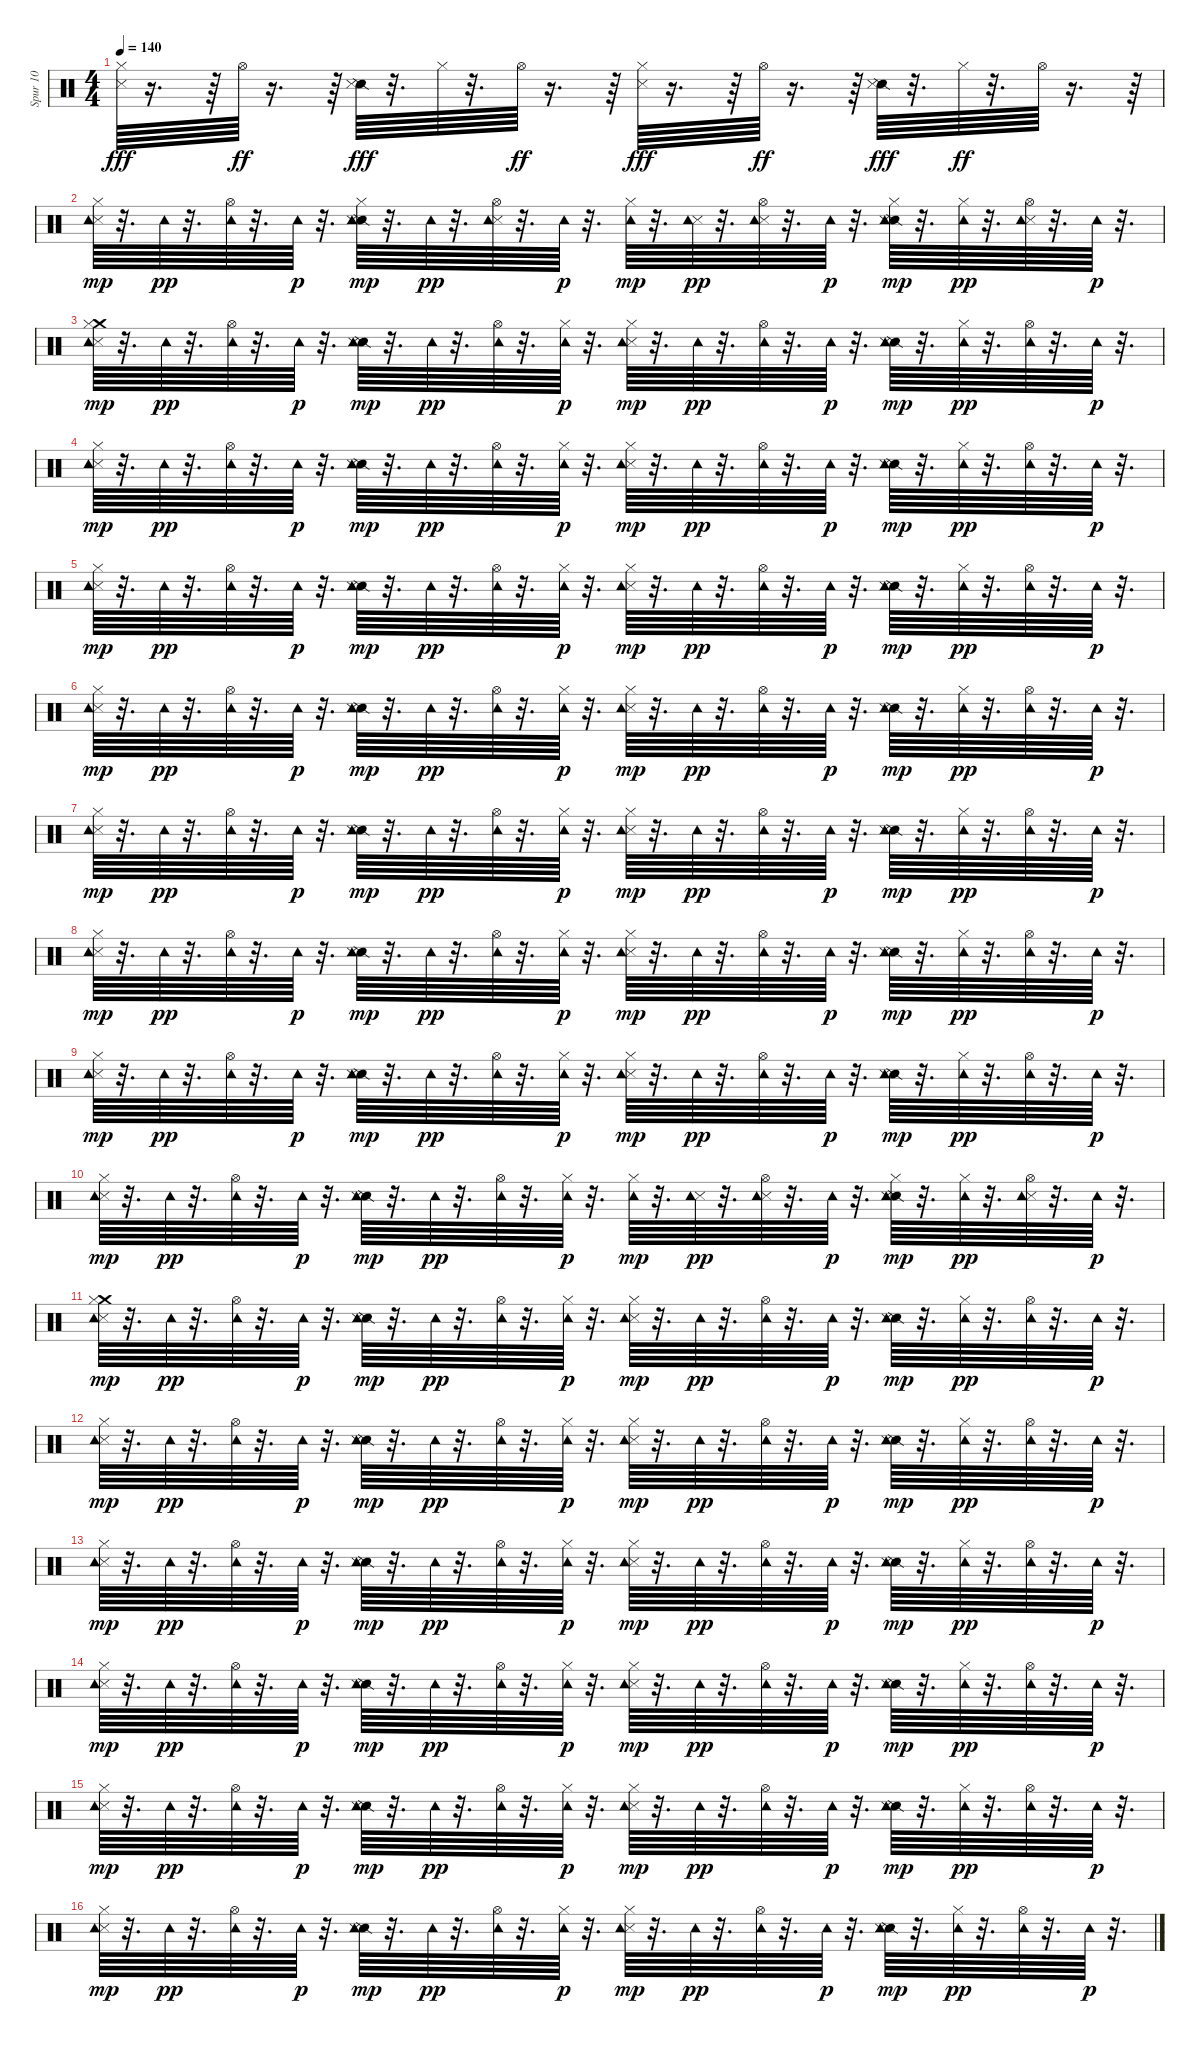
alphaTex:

\track ("Spur 10" "Spur 10") {instrument percussion}
\staff {score}
\articulation defaults
\ts (4 4)
\tempo 140
\clef neutral
\ks c
("Metronome (hit)" "Hi-Hat (closed)").64{dy fff} r.16{d} r.64 "Hi-Hat (open)".64{dy ff} r.16{d} r.64 ("Snare (side stick) 2" "Metronome (hit)").64{dy fff} r.32{d} "Hi-Hat (closed)".64 r.32{d} "Hi-Hat (open)".64{dy ff} r.16{d} r.64 ("Metronome (hit)" "Hi-Hat (closed)").64{dy fff} r.16{d} r.64 "Hi-Hat (open)".64{dy ff} r.16{d} r.64 ("Snare (side stick) 2" "Metronome (hit)").64{dy fff} r.32{d} "Hi-Hat (closed)".64{dy ff} r.32{d} "Hi-Hat (open)".64 r.16{d} r.64 |
("Metronome (hit)" "Hi-Hat (closed)" "Tambourine (hit)").64{dy mp} r.32{d} "Tambourine (hit)".64{dy pp} r.32{d} ("Hi-Hat (open)" "Tambourine (hit)").64 r.32{d} "Tambourine (hit)".64{dy p} r.32{d} ("Snare (side stick) 2" "Metronome (hit)" "Hi-Hat (closed)" "Tambourine (hit)").64{dy mp} r.32{d} "Tambourine (hit)".64{dy pp} r.32{d} ("Metronome (hit)" "Hi-Hat (open)" "Tambourine (hit)").64 r.32{d} "Tambourine (hit)".64{dy p} r.32{d} ("Hi-Hat (closed)" "Tambourine (hit)").64{dy mp} r.32{d} ("Metronome (hit)" "Tambourine (hit)").64{dy pp} r.32{d} ("Metronome (hit)" "Hi-Hat (open)" "Tambourine (hit)").64 r.32{d} "Tambourine (hit)".64{dy p} r.32{d} ("Snare (side stick) 2" "Metronome (hit)" "Hi-Hat (closed)" "Tambourine (hit)").64{dy mp} r.32{d} ("Hi-Hat (closed)" "Tambourine (hit)").64{dy pp} r.32{d} ("Metronome (hit)" "Hi-Hat (open)" "Tambourine (hit)").64 r.32{d} "Tambourine (hit)".64{dy p} r.32{d} |
("Crash medium (hit)" "Metronome (hit)" "Hi-Hat (closed)" "Tambourine (hit)").64{dy mp} r.32{d} "Tambourine (hit)".64{dy pp} r.32{d} ("Hi-Hat (open)" "Tambourine (hit)").64 r.32{d} "Tambourine (hit)".64{dy p} r.32{d} ("Snare (side stick) 2" "Metronome (hit)" "Tambourine (hit)").64{dy mp} r.32{d} "Tambourine (hit)".64{dy pp} r.32{d} ("Hi-Hat (open)" "Tambourine (hit)").64 r.32{d} ("Hi-Hat (closed)" "Tambourine (hit)").64{dy p} r.32{d} ("Metronome (hit)" "Hi-Hat (closed)" "Tambourine (hit)").64{dy mp} r.32{d} "Tambourine (hit)".64{dy pp} r.32{d} ("Hi-Hat (open)" "Tambourine (hit)").64 r.32{d} "Tambourine (hit)".64{dy p} r.32{d} ("Snare (side stick) 2" "Metronome (hit)" "Tambourine (hit)").64{dy mp} r.32{d} ("Hi-Hat (closed)" "Tambourine (hit)").64{dy pp} r.32{d} ("Hi-Hat (open)" "Tambourine (hit)").64 r.32{d} "Tambourine (hit)".64{dy p} r.32{d} |
("Metronome (hit)" "Hi-Hat (closed)" "Tambourine (hit)").64{dy mp} r.32{d} "Tambourine (hit)".64{dy pp} r.32{d} ("Hi-Hat (open)" "Tambourine (hit)").64 r.32{d} "Tambourine (hit)".64{dy p} r.32{d} ("Snare (side stick) 2" "Metronome (hit)" "Tambourine (hit)").64{dy mp} r.32{d} "Tambourine (hit)".64{dy pp} r.32{d} ("Hi-Hat (open)" "Tambourine (hit)").64 r.32{d} ("Hi-Hat (closed)" "Tambourine (hit)").64{dy p} r.32{d} ("Metronome (hit)" "Hi-Hat (closed)" "Tambourine (hit)").64{dy mp} r.32{d} "Tambourine (hit)".64{dy pp} r.32{d} ("Hi-Hat (open)" "Tambourine (hit)").64 r.32{d} "Tambourine (hit)".64{dy p} r.32{d} ("Snare (side stick) 2" "Metronome (hit)" "Tambourine (hit)").64{dy mp} r.32{d} ("Hi-Hat (closed)" "Tambourine (hit)").64{dy pp} r.32{d} ("Hi-Hat (open)" "Tambourine (hit)").64 r.32{d} "Tambourine (hit)".64{dy p} r.32{d} |
("Metronome (hit)" "Hi-Hat (closed)" "Tambourine (hit)").64{dy mp} r.32{d} "Tambourine (hit)".64{dy pp} r.32{d} ("Hi-Hat (open)" "Tambourine (hit)").64 r.32{d} "Tambourine (hit)".64{dy p} r.32{d} ("Snare (side stick) 2" "Metronome (hit)" "Tambourine (hit)").64{dy mp} r.32{d} "Tambourine (hit)".64{dy pp} r.32{d} ("Hi-Hat (open)" "Tambourine (hit)").64 r.32{d} ("Hi-Hat (closed)" "Tambourine (hit)").64{dy p} r.32{d} ("Metronome (hit)" "Hi-Hat (closed)" "Tambourine (hit)").64{dy mp} r.32{d} "Tambourine (hit)".64{dy pp} r.32{d} ("Hi-Hat (open)" "Tambourine (hit)").64 r.32{d} "Tambourine (hit)".64{dy p} r.32{d} ("Snare (side stick) 2" "Metronome (hit)" "Tambourine (hit)").64{dy mp} r.32{d} ("Hi-Hat (closed)" "Tambourine (hit)").64{dy pp} r.32{d} ("Hi-Hat (open)" "Tambourine (hit)").64 r.32{d} "Tambourine (hit)".64{dy p} r.32{d} |
("Metronome (hit)" "Hi-Hat (closed)" "Tambourine (hit)").64{dy mp} r.32{d} "Tambourine (hit)".64{dy pp} r.32{d} ("Hi-Hat (open)" "Tambourine (hit)").64 r.32{d} "Tambourine (hit)".64{dy p} r.32{d} ("Snare (side stick) 2" "Metronome (hit)" "Tambourine (hit)").64{dy mp} r.32{d} "Tambourine (hit)".64{dy pp} r.32{d} ("Hi-Hat (open)" "Tambourine (hit)").64 r.32{d} ("Hi-Hat (closed)" "Tambourine (hit)").64{dy p} r.32{d} ("Metronome (hit)" "Hi-Hat (closed)" "Tambourine (hit)").64{dy mp} r.32{d} "Tambourine (hit)".64{dy pp} r.32{d} ("Hi-Hat (open)" "Tambourine (hit)").64 r.32{d} "Tambourine (hit)".64{dy p} r.32{d} ("Snare (side stick) 2" "Metronome (hit)" "Tambourine (hit)").64{dy mp} r.32{d} ("Hi-Hat (closed)" "Tambourine (hit)").64{dy pp} r.32{d} ("Hi-Hat (open)" "Tambourine (hit)").64 r.32{d} "Tambourine (hit)".64{dy p} r.32{d} |
("Metronome (hit)" "Hi-Hat (closed)" "Tambourine (hit)").64{dy mp} r.32{d} "Tambourine (hit)".64{dy pp} r.32{d} ("Hi-Hat (open)" "Tambourine (hit)").64 r.32{d} "Tambourine (hit)".64{dy p} r.32{d} ("Snare (side stick) 2" "Metronome (hit)" "Tambourine (hit)").64{dy mp} r.32{d} "Tambourine (hit)".64{dy pp} r.32{d} ("Hi-Hat (open)" "Tambourine (hit)").64 r.32{d} ("Hi-Hat (closed)" "Tambourine (hit)").64{dy p} r.32{d} ("Metronome (hit)" "Hi-Hat (closed)" "Tambourine (hit)").64{dy mp} r.32{d} "Tambourine (hit)".64{dy pp} r.32{d} ("Hi-Hat (open)" "Tambourine (hit)").64 r.32{d} "Tambourine (hit)".64{dy p} r.32{d} ("Snare (side stick) 2" "Metronome (hit)" "Tambourine (hit)").64{dy mp} r.32{d} ("Hi-Hat (closed)" "Tambourine (hit)").64{dy pp} r.32{d} ("Hi-Hat (open)" "Tambourine (hit)").64 r.32{d} "Tambourine (hit)".64{dy p} r.32{d} |
("Metronome (hit)" "Hi-Hat (closed)" "Tambourine (hit)").64{dy mp} r.32{d} "Tambourine (hit)".64{dy pp} r.32{d} ("Hi-Hat (open)" "Tambourine (hit)").64 r.32{d} "Tambourine (hit)".64{dy p} r.32{d} ("Snare (side stick) 2" "Metronome (hit)" "Tambourine (hit)").64{dy mp} r.32{d} "Tambourine (hit)".64{dy pp} r.32{d} ("Hi-Hat (open)" "Tambourine (hit)").64 r.32{d} ("Hi-Hat (closed)" "Tambourine (hit)").64{dy p} r.32{d} ("Metronome (hit)" "Hi-Hat (closed)" "Tambourine (hit)").64{dy mp} r.32{d} "Tambourine (hit)".64{dy pp} r.32{d} ("Hi-Hat (open)" "Tambourine (hit)").64 r.32{d} "Tambourine (hit)".64{dy p} r.32{d} ("Snare (side stick) 2" "Metronome (hit)" "Tambourine (hit)").64{dy mp} r.32{d} ("Hi-Hat (closed)" "Tambourine (hit)").64{dy pp} r.32{d} ("Hi-Hat (open)" "Tambourine (hit)").64 r.32{d} "Tambourine (hit)".64{dy p} r.32{d} |
("Metronome (hit)" "Hi-Hat (closed)" "Tambourine (hit)").64{dy mp} r.32{d} "Tambourine (hit)".64{dy pp} r.32{d} ("Hi-Hat (open)" "Tambourine (hit)").64 r.32{d} "Tambourine (hit)".64{dy p} r.32{d} ("Snare (side stick) 2" "Metronome (hit)" "Tambourine (hit)").64{dy mp} r.32{d} "Tambourine (hit)".64{dy pp} r.32{d} ("Hi-Hat (open)" "Tambourine (hit)").64 r.32{d} ("Hi-Hat (closed)" "Tambourine (hit)").64{dy p} r.32{d} ("Metronome (hit)" "Hi-Hat (closed)" "Tambourine (hit)").64{dy mp} r.32{d} "Tambourine (hit)".64{dy pp} r.32{d} ("Hi-Hat (open)" "Tambourine (hit)").64 r.32{d} "Tambourine (hit)".64{dy p} r.32{d} ("Snare (side stick) 2" "Metronome (hit)" "Tambourine (hit)").64{dy mp} r.32{d} ("Hi-Hat (closed)" "Tambourine (hit)").64{dy pp} r.32{d} ("Hi-Hat (open)" "Tambourine (hit)").64 r.32{d} "Tambourine (hit)".64{dy p} r.32{d} |
("Metronome (hit)" "Hi-Hat (closed)" "Tambourine (hit)").64{dy mp} r.32{d} "Tambourine (hit)".64{dy pp} r.32{d} ("Hi-Hat (open)" "Tambourine (hit)").64 r.32{d} "Tambourine (hit)".64{dy p} r.32{d} ("Snare (side stick) 2" "Metronome (hit)" "Tambourine (hit)").64{dy mp} r.32{d} "Tambourine (hit)".64{dy pp} r.32{d} ("Hi-Hat (open)" "Tambourine (hit)").64 r.32{d} ("Hi-Hat (closed)" "Tambourine (hit)").64{dy p} r.32{d} ("Hi-Hat (closed)" "Tambourine (hit)").64{dy mp} r.32{d} ("Metronome (hit)" "Tambourine (hit)").64{dy pp} r.32{d} ("Metronome (hit)" "Hi-Hat (open)" "Tambourine (hit)").64 r.32{d} "Tambourine (hit)".64{dy p} r.32{d} ("Snare (side stick) 2" "Metronome (hit)" "Hi-Hat (closed)" "Tambourine (hit)").64{dy mp} r.32{d} ("Hi-Hat (closed)" "Tambourine (hit)").64{dy pp} r.32{d} ("Metronome (hit)" "Hi-Hat (open)" "Tambourine (hit)").64 r.32{d} "Tambourine (hit)".64{dy p} r.32{d} |
("Crash medium (hit)" "Metronome (hit)" "Hi-Hat (closed)" "Tambourine (hit)").64{dy mp} r.32{d} "Tambourine (hit)".64{dy pp} r.32{d} ("Hi-Hat (open)" "Tambourine (hit)").64 r.32{d} "Tambourine (hit)".64{dy p} r.32{d} ("Snare (side stick) 2" "Metronome (hit)" "Tambourine (hit)").64{dy mp} r.32{d} "Tambourine (hit)".64{dy pp} r.32{d} ("Hi-Hat (open)" "Tambourine (hit)").64 r.32{d} ("Hi-Hat (closed)" "Tambourine (hit)").64{dy p} r.32{d} ("Metronome (hit)" "Hi-Hat (closed)" "Tambourine (hit)").64{dy mp} r.32{d} "Tambourine (hit)".64{dy pp} r.32{d} ("Hi-Hat (open)" "Tambourine (hit)").64 r.32{d} "Tambourine (hit)".64{dy p} r.32{d} ("Snare (side stick) 2" "Metronome (hit)" "Tambourine (hit)").64{dy mp} r.32{d} ("Hi-Hat (closed)" "Tambourine (hit)").64{dy pp} r.32{d} ("Hi-Hat (open)" "Tambourine (hit)").64 r.32{d} "Tambourine (hit)".64{dy p} r.32{d} |
("Metronome (hit)" "Hi-Hat (closed)" "Tambourine (hit)").64{dy mp} r.32{d} "Tambourine (hit)".64{dy pp} r.32{d} ("Hi-Hat (open)" "Tambourine (hit)").64 r.32{d} "Tambourine (hit)".64{dy p} r.32{d} ("Snare (side stick) 2" "Metronome (hit)" "Tambourine (hit)").64{dy mp} r.32{d} "Tambourine (hit)".64{dy pp} r.32{d} ("Hi-Hat (open)" "Tambourine (hit)").64 r.32{d} ("Hi-Hat (closed)" "Tambourine (hit)").64{dy p} r.32{d} ("Metronome (hit)" "Hi-Hat (closed)" "Tambourine (hit)").64{dy mp} r.32{d} "Tambourine (hit)".64{dy pp} r.32{d} ("Hi-Hat (open)" "Tambourine (hit)").64 r.32{d} "Tambourine (hit)".64{dy p} r.32{d} ("Snare (side stick) 2" "Metronome (hit)" "Tambourine (hit)").64{dy mp} r.32{d} ("Hi-Hat (closed)" "Tambourine (hit)").64{dy pp} r.32{d} ("Hi-Hat (open)" "Tambourine (hit)").64 r.32{d} "Tambourine (hit)".64{dy p} r.32{d} |
("Metronome (hit)" "Hi-Hat (closed)" "Tambourine (hit)").64{dy mp} r.32{d} "Tambourine (hit)".64{dy pp} r.32{d} ("Hi-Hat (open)" "Tambourine (hit)").64 r.32{d} "Tambourine (hit)".64{dy p} r.32{d} ("Snare (side stick) 2" "Metronome (hit)" "Tambourine (hit)").64{dy mp} r.32{d} "Tambourine (hit)".64{dy pp} r.32{d} ("Hi-Hat (open)" "Tambourine (hit)").64 r.32{d} ("Hi-Hat (closed)" "Tambourine (hit)").64{dy p} r.32{d} ("Metronome (hit)" "Hi-Hat (closed)" "Tambourine (hit)").64{dy mp} r.32{d} "Tambourine (hit)".64{dy pp} r.32{d} ("Hi-Hat (open)" "Tambourine (hit)").64 r.32{d} "Tambourine (hit)".64{dy p} r.32{d} ("Snare (side stick) 2" "Metronome (hit)" "Tambourine (hit)").64{dy mp} r.32{d} ("Hi-Hat (closed)" "Tambourine (hit)").64{dy pp} r.32{d} ("Hi-Hat (open)" "Tambourine (hit)").64 r.32{d} "Tambourine (hit)".64{dy p} r.32{d} |
("Metronome (hit)" "Hi-Hat (closed)" "Tambourine (hit)").64{dy mp} r.32{d} "Tambourine (hit)".64{dy pp} r.32{d} ("Hi-Hat (open)" "Tambourine (hit)").64 r.32{d} "Tambourine (hit)".64{dy p} r.32{d} ("Snare (side stick) 2" "Metronome (hit)" "Tambourine (hit)").64{dy mp} r.32{d} "Tambourine (hit)".64{dy pp} r.32{d} ("Hi-Hat (open)" "Tambourine (hit)").64 r.32{d} ("Hi-Hat (closed)" "Tambourine (hit)").64{dy p} r.32{d} ("Metronome (hit)" "Hi-Hat (closed)" "Tambourine (hit)").64{dy mp} r.32{d} "Tambourine (hit)".64{dy pp} r.32{d} ("Hi-Hat (open)" "Tambourine (hit)").64 r.32{d} "Tambourine (hit)".64{dy p} r.32{d} ("Snare (side stick) 2" "Metronome (hit)" "Tambourine (hit)").64{dy mp} r.32{d} ("Hi-Hat (closed)" "Tambourine (hit)").64{dy pp} r.32{d} ("Hi-Hat (open)" "Tambourine (hit)").64 r.32{d} "Tambourine (hit)".64{dy p} r.32{d} |
("Metronome (hit)" "Hi-Hat (closed)" "Tambourine (hit)").64{dy mp} r.32{d} "Tambourine (hit)".64{dy pp} r.32{d} ("Hi-Hat (open)" "Tambourine (hit)").64 r.32{d} "Tambourine (hit)".64{dy p} r.32{d} ("Snare (side stick) 2" "Metronome (hit)" "Tambourine (hit)").64{dy mp} r.32{d} "Tambourine (hit)".64{dy pp} r.32{d} ("Hi-Hat (open)" "Tambourine (hit)").64 r.32{d} ("Hi-Hat (closed)" "Tambourine (hit)").64{dy p} r.32{d} ("Metronome (hit)" "Hi-Hat (closed)" "Tambourine (hit)").64{dy mp} r.32{d} "Tambourine (hit)".64{dy pp} r.32{d} ("Hi-Hat (open)" "Tambourine (hit)").64 r.32{d} "Tambourine (hit)".64{dy p} r.32{d} ("Snare (side stick) 2" "Metronome (hit)" "Tambourine (hit)").64{dy mp} r.32{d} ("Hi-Hat (closed)" "Tambourine (hit)").64{dy pp} r.32{d} ("Hi-Hat (open)" "Tambourine (hit)").64 r.32{d} "Tambourine (hit)".64{dy p} r.32{d} |
("Metronome (hit)" "Hi-Hat (closed)" "Tambourine (hit)").64{dy mp} r.32{d} "Tambourine (hit)".64{dy pp} r.32{d} ("Hi-Hat (open)" "Tambourine (hit)").64 r.32{d} "Tambourine (hit)".64{dy p} r.32{d} ("Snare (side stick) 2" "Metronome (hit)" "Tambourine (hit)").64{dy mp} r.32{d} "Tambourine (hit)".64{dy pp} r.32{d} ("Hi-Hat (open)" "Tambourine (hit)").64 r.32{d} ("Hi-Hat (closed)" "Tambourine (hit)").64{dy p} r.32{d} ("Metronome (hit)" "Hi-Hat (closed)" "Tambourine (hit)").64{dy mp} r.32{d} "Tambourine (hit)".64{dy pp} r.32{d} ("Hi-Hat (open)" "Tambourine (hit)").64 r.32{d} "Tambourine (hit)".64{dy p} r.32{d} ("Snare (side stick) 2" "Metronome (hit)" "Tambourine (hit)").64{dy mp} r.32{d} ("Hi-Hat (closed)" "Tambourine (hit)").64{dy pp} r.32{d} ("Hi-Hat (open)" "Tambourine (hit)").64 r.32{d} "Tambourine (hit)".64{dy p} r.32{d}
